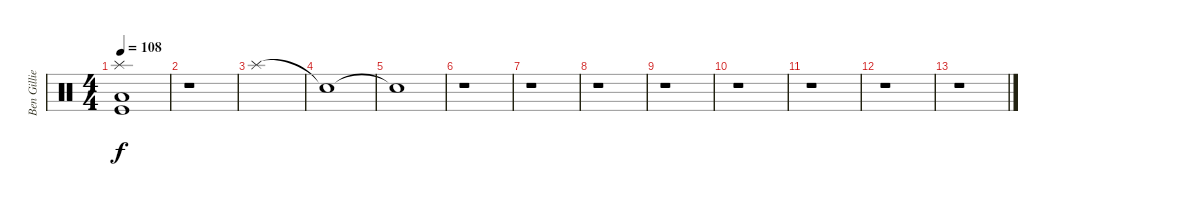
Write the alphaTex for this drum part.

\track ("Ben Gillies (percus)" "Ben Gillie") {instrument percussion}
\staff {score}
\articulation defaults
\ts (4 4)
\tempo 108
\clef neutral
\ks c
("Splash (hit)" "Low Floor Tom (hit)" "Kick (hit)").1{dy f} |
r.1 |
"Splash (hit)".1 |
"Snare (hit)"{t}.1 |
"Snare (hit)"{t}.1 |
r.1 |
r.1 |
r.1 |
r.1 |
r.1 |
r.1 |
r.1 |
r.1
